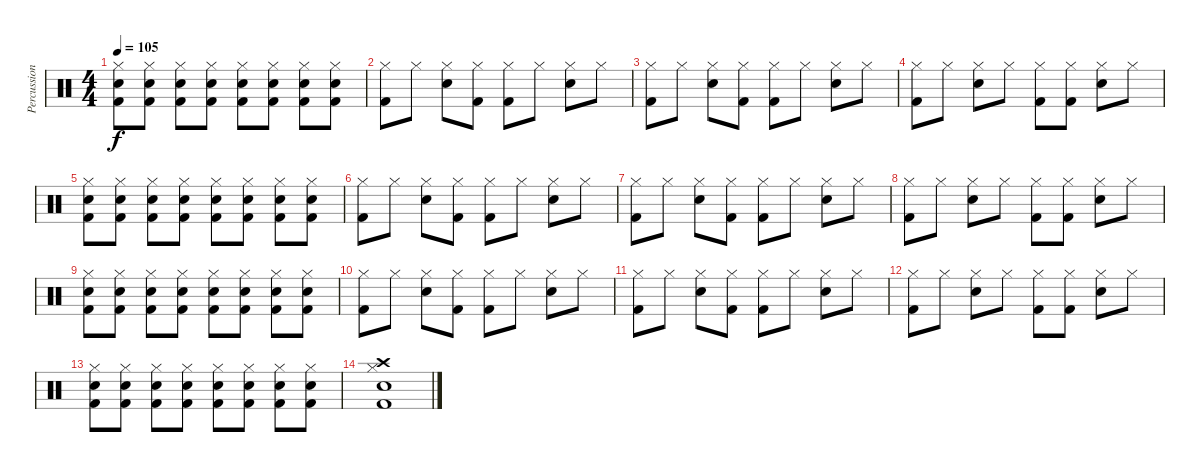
\track ("Percussion" "Percussion") {instrument percussion}
\staff {score}
\articulation defaults
\ts (4 4)
\tempo 105
\clef neutral
\ks c
("Hi-Hat (closed)" "Kick (hit) 2" "Snare (hit) 2").8{dy f} ("Hi-Hat (closed)" "Kick (hit) 2" "Snare (hit) 2").8 ("Hi-Hat (closed)" "Kick (hit) 2" "Snare (hit) 2").8 ("Hi-Hat (closed)" "Kick (hit) 2" "Snare (hit) 2").8 ("Hi-Hat (closed)" "Kick (hit) 2" "Snare (hit) 2").8 ("Hi-Hat (closed)" "Kick (hit) 2" "Snare (hit) 2").8 ("Hi-Hat (closed)" "Kick (hit) 2" "Snare (hit) 2").8 ("Hi-Hat (closed)" "Kick (hit) 2" "Snare (hit) 2").8 |
("Hi-Hat (closed)" "Kick (hit) 2").8 "Hi-Hat (closed)".8 ("Hi-Hat (closed)" "Snare (hit) 2").8 ("Hi-Hat (closed)" "Kick (hit) 2").8 ("Hi-Hat (closed)" "Kick (hit) 2").8 "Hi-Hat (closed)".8 ("Hi-Hat (closed)" "Snare (hit) 2").8 "Hi-Hat (closed)".8 |
("Hi-Hat (closed)" "Kick (hit) 2").8 "Hi-Hat (closed)".8 ("Hi-Hat (closed)" "Snare (hit) 2").8 ("Hi-Hat (closed)" "Kick (hit) 2").8 ("Hi-Hat (closed)" "Kick (hit) 2").8 "Hi-Hat (closed)".8 ("Hi-Hat (closed)" "Snare (hit) 2").8 "Hi-Hat (closed)".8 |
("Hi-Hat (closed)" "Kick (hit) 2").8 "Hi-Hat (closed)".8 ("Hi-Hat (closed)" "Snare (hit) 2").8 "Hi-Hat (closed)".8 ("Hi-Hat (closed)" "Kick (hit) 2").8 ("Hi-Hat (closed)" "Kick (hit) 2").8 ("Hi-Hat (closed)" "Snare (hit) 2").8 "Hi-Hat (closed)".8 |
("Hi-Hat (closed)" "Kick (hit) 2" "Snare (hit) 2").8 ("Hi-Hat (closed)" "Kick (hit) 2" "Snare (hit) 2").8 ("Hi-Hat (closed)" "Kick (hit) 2" "Snare (hit) 2").8 ("Hi-Hat (closed)" "Kick (hit) 2" "Snare (hit) 2").8 ("Hi-Hat (closed)" "Kick (hit) 2" "Snare (hit) 2").8 ("Hi-Hat (closed)" "Kick (hit) 2" "Snare (hit) 2").8 ("Hi-Hat (closed)" "Kick (hit) 2" "Snare (hit) 2").8 ("Hi-Hat (closed)" "Kick (hit) 2" "Snare (hit) 2").8 |
("Hi-Hat (closed)" "Kick (hit) 2").8 "Hi-Hat (closed)".8 ("Hi-Hat (closed)" "Snare (hit) 2").8 ("Hi-Hat (closed)" "Kick (hit) 2").8 ("Hi-Hat (closed)" "Kick (hit) 2").8 "Hi-Hat (closed)".8 ("Hi-Hat (closed)" "Snare (hit) 2").8 "Hi-Hat (closed)".8 |
("Hi-Hat (closed)" "Kick (hit) 2").8 "Hi-Hat (closed)".8 ("Hi-Hat (closed)" "Snare (hit) 2").8 ("Hi-Hat (closed)" "Kick (hit) 2").8 ("Hi-Hat (closed)" "Kick (hit) 2").8 "Hi-Hat (closed)".8 ("Hi-Hat (closed)" "Snare (hit) 2").8 "Hi-Hat (closed)".8 |
("Hi-Hat (closed)" "Kick (hit) 2").8 "Hi-Hat (closed)".8 ("Hi-Hat (closed)" "Snare (hit) 2").8 "Hi-Hat (closed)".8 ("Hi-Hat (closed)" "Kick (hit) 2").8 ("Hi-Hat (closed)" "Kick (hit) 2").8 ("Hi-Hat (closed)" "Snare (hit) 2").8 "Hi-Hat (closed)".8 |
("Hi-Hat (closed)" "Kick (hit) 2" "Snare (hit) 2").8 ("Hi-Hat (closed)" "Kick (hit) 2" "Snare (hit) 2").8 ("Hi-Hat (closed)" "Kick (hit) 2" "Snare (hit) 2").8 ("Hi-Hat (closed)" "Kick (hit) 2" "Snare (hit) 2").8 ("Hi-Hat (closed)" "Kick (hit) 2" "Snare (hit) 2").8 ("Hi-Hat (closed)" "Kick (hit) 2" "Snare (hit) 2").8 ("Hi-Hat (closed)" "Kick (hit) 2" "Snare (hit) 2").8 ("Hi-Hat (closed)" "Kick (hit) 2" "Snare (hit) 2").8 |
("Hi-Hat (closed)" "Kick (hit) 2").8 "Hi-Hat (closed)".8 ("Hi-Hat (closed)" "Snare (hit) 2").8 ("Hi-Hat (closed)" "Kick (hit) 2").8 ("Hi-Hat (closed)" "Kick (hit) 2").8 "Hi-Hat (closed)".8 ("Hi-Hat (closed)" "Snare (hit) 2").8 "Hi-Hat (closed)".8 |
("Hi-Hat (closed)" "Kick (hit) 2").8 "Hi-Hat (closed)".8 ("Hi-Hat (closed)" "Snare (hit) 2").8 ("Hi-Hat (closed)" "Kick (hit) 2").8 ("Hi-Hat (closed)" "Kick (hit) 2").8 "Hi-Hat (closed)".8 ("Hi-Hat (closed)" "Snare (hit) 2").8 "Hi-Hat (closed)".8 |
("Hi-Hat (closed)" "Kick (hit) 2").8 "Hi-Hat (closed)".8 ("Hi-Hat (closed)" "Snare (hit) 2").8 "Hi-Hat (closed)".8 ("Hi-Hat (closed)" "Kick (hit) 2").8 ("Hi-Hat (closed)" "Kick (hit) 2").8 ("Hi-Hat (closed)" "Snare (hit) 2").8 "Hi-Hat (closed)".8 |
("Hi-Hat (closed)" "Kick (hit) 2" "Snare (hit) 2").8 ("Hi-Hat (closed)" "Kick (hit) 2" "Snare (hit) 2").8 ("Hi-Hat (closed)" "Kick (hit) 2" "Snare (hit) 2").8 ("Hi-Hat (closed)" "Kick (hit) 2" "Snare (hit) 2").8 ("Hi-Hat (closed)" "Kick (hit) 2" "Snare (hit) 2").8 ("Hi-Hat (closed)" "Kick (hit) 2" "Snare (hit) 2").8 ("Hi-Hat (closed)" "Kick (hit) 2" "Snare (hit) 2").8 ("Hi-Hat (closed)" "Kick (hit) 2" "Snare (hit) 2").8 |
("Hi-Hat (closed)" "Kick (hit) 2" "Snare (hit) 2" "Crash high (hit)").1
